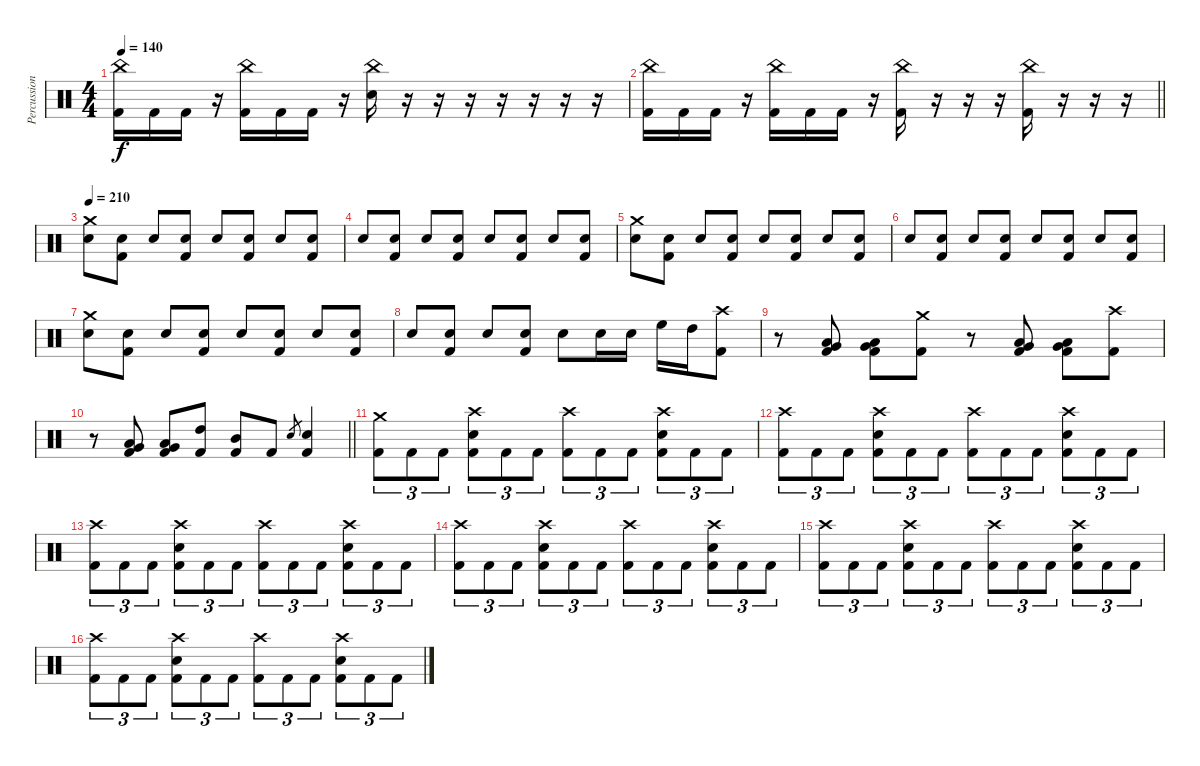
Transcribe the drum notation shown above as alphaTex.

\track ("Percussion" "Percussion") {instrument percussion}
\staff {score}
\articulation defaults
\ts (4 4)
\tempo 140
\clef neutral
\ks c
("China (hit)" "Kick (hit) 2").16{dy f} "Kick (hit) 2".16 "Kick (hit) 2".16 r.16 ("China (hit)" "Kick (hit) 2").16 "Kick (hit) 2".16 "Kick (hit) 2".16 r.16 ("China (hit)" "Snare (hit) 2").16 r.16 r.16 r.16 r.16 r.16 r.16 r.16 |
\barLineRight lightlight
("China (hit)" "Kick (hit) 2").16 "Kick (hit) 2".16 "Kick (hit) 2".16 r.16 ("China (hit)" "Kick (hit) 2").16 "Kick (hit) 2".16 "Kick (hit) 2".16 r.16 ("China (hit)" "Kick (hit) 2").16 r.16 r.16 r.16 ("China (hit)" "Kick (hit) 2").16 r.16 r.16 r.16 |
\section ("" "")
\tempo 210
("Crash medium (hit)" "Snare (hit) 2").8 ("Snare (hit) 2" "Kick (hit) 2").8 "Snare (hit) 2".8 ("Snare (hit) 2" "Kick (hit) 2").8 "Snare (hit) 2".8 ("Snare (hit) 2" "Kick (hit) 2").8 "Snare (hit) 2".8 ("Snare (hit) 2" "Kick (hit) 2").8 |
"Snare (hit) 2".8 ("Snare (hit) 2" "Kick (hit) 2").8 "Snare (hit) 2".8 ("Snare (hit) 2" "Kick (hit) 2").8 "Snare (hit) 2".8 ("Snare (hit) 2" "Kick (hit) 2").8 "Snare (hit) 2".8 ("Snare (hit) 2" "Kick (hit) 2").8 |
("Crash medium (hit)" "Snare (hit) 2").8 ("Snare (hit) 2" "Kick (hit) 2").8 "Snare (hit) 2".8 ("Snare (hit) 2" "Kick (hit) 2").8 "Snare (hit) 2".8 ("Snare (hit) 2" "Kick (hit) 2").8 "Snare (hit) 2".8 ("Snare (hit) 2" "Kick (hit) 2").8 |
"Snare (hit) 2".8 ("Snare (hit) 2" "Kick (hit) 2").8 "Snare (hit) 2".8 ("Snare (hit) 2" "Kick (hit) 2").8 "Snare (hit) 2".8 ("Snare (hit) 2" "Kick (hit) 2").8 "Snare (hit) 2".8 ("Snare (hit) 2" "Kick (hit) 2").8 |
("Crash medium (hit)" "Snare (hit) 2").8 ("Snare (hit) 2" "Kick (hit) 2").8 "Snare (hit) 2".8 ("Snare (hit) 2" "Kick (hit) 2").8 "Snare (hit) 2".8 ("Snare (hit) 2" "Kick (hit) 2").8 "Snare (hit) 2".8 ("Snare (hit) 2" "Kick (hit) 2").8 |
"Snare (hit) 2".8 ("Snare (hit) 2" "Kick (hit) 2").8 "Snare (hit) 2".8 ("Snare (hit) 2" "Kick (hit) 2").8 "Snare (hit) 2".8 "Snare (hit) 2".16 "Snare (hit) 2".16 "High Floor Tom (hit)".16 "High Tom (hit)".16 ("Crash high (hit)" "Kick (hit) 2").8 |
r.8 ("Low Tom (hit)" "Very Low Tom (hit)" "Kick (hit) 2").8 ("Low Tom (hit)" "Very Low Tom (hit)" "Kick (hit) 2").8 ("Crash medium (hit)" "Kick (hit) 2").8 r.8 ("Low Tom (hit)" "Very Low Tom (hit)" "Kick (hit) 2").8 ("Low Tom (hit)" "Very Low Tom (hit)" "Kick (hit) 2").8 ("Crash high (hit)" "Kick (hit) 2").8 |
\barLineRight lightlight
r.8 ("Low Tom (hit)" "Very Low Tom (hit)" "Kick (hit) 2").8 ("Low Tom (hit)" "Very Low Tom (hit)" "Kick (hit) 2").8 ("High Tom (hit)" "Kick (hit) 2").8 ("Mid Tom (hit)" "Kick (hit) 2").8 "Kick (hit) 2".8 "Snare (hit) 2".8{gr} ("Snare (hit) 2" "Kick (hit) 2").4 |
\section ("" "")
("Crash medium (hit)" "Kick (hit) 2").8{tu (3 2)} "Kick (hit) 2".8{tu (3 2)} "Kick (hit) 2".8{tu (3 2)} ("Crash high (hit)" "Snare (hit) 2" "Kick (hit) 2").8{tu (3 2)} "Kick (hit) 2".8{tu (3 2)} "Kick (hit) 2".8{tu (3 2)} ("Crash high (hit)" "Kick (hit) 2").8{tu (3 2)} "Kick (hit) 2".8{tu (3 2)} "Kick (hit) 2".8{tu (3 2)} ("Crash high (hit)" "Snare (hit) 2" "Kick (hit) 2").8{tu (3 2)} "Kick (hit) 2".8{tu (3 2)} "Kick (hit) 2".8{tu (3 2)} |
("Crash high (hit)" "Kick (hit) 2").8{tu (3 2)} "Kick (hit) 2".8{tu (3 2)} "Kick (hit) 2".8{tu (3 2)} ("Crash high (hit)" "Snare (hit) 2" "Kick (hit) 2").8{tu (3 2)} "Kick (hit) 2".8{tu (3 2)} "Kick (hit) 2".8{tu (3 2)} ("Crash high (hit)" "Kick (hit) 2").8{tu (3 2)} "Kick (hit) 2".8{tu (3 2)} "Kick (hit) 2".8{tu (3 2)} ("Crash high (hit)" "Snare (hit) 2" "Kick (hit) 2").8{tu (3 2)} "Kick (hit) 2".8{tu (3 2)} "Kick (hit) 2".8{tu (3 2)} |
("Crash high (hit)" "Kick (hit) 2").8{tu (3 2)} "Kick (hit) 2".8{tu (3 2)} "Kick (hit) 2".8{tu (3 2)} ("Crash high (hit)" "Snare (hit) 2" "Kick (hit) 2").8{tu (3 2)} "Kick (hit) 2".8{tu (3 2)} "Kick (hit) 2".8{tu (3 2)} ("Crash high (hit)" "Kick (hit) 2").8{tu (3 2)} "Kick (hit) 2".8{tu (3 2)} "Kick (hit) 2".8{tu (3 2)} ("Crash high (hit)" "Snare (hit) 2" "Kick (hit) 2").8{tu (3 2)} "Kick (hit) 2".8{tu (3 2)} "Kick (hit) 2".8{tu (3 2)} |
("Crash high (hit)" "Kick (hit) 2").8{tu (3 2)} "Kick (hit) 2".8{tu (3 2)} "Kick (hit) 2".8{tu (3 2)} ("Crash high (hit)" "Snare (hit) 2" "Kick (hit) 2").8{tu (3 2)} "Kick (hit) 2".8{tu (3 2)} "Kick (hit) 2".8{tu (3 2)} ("Crash high (hit)" "Kick (hit) 2").8{tu (3 2)} "Kick (hit) 2".8{tu (3 2)} "Kick (hit) 2".8{tu (3 2)} ("Crash high (hit)" "Snare (hit) 2" "Kick (hit) 2").8{tu (3 2)} "Kick (hit) 2".8{tu (3 2)} "Kick (hit) 2".8{tu (3 2)} |
("Crash high (hit)" "Kick (hit) 2").8{tu (3 2)} "Kick (hit) 2".8{tu (3 2)} "Kick (hit) 2".8{tu (3 2)} ("Crash high (hit)" "Snare (hit) 2" "Kick (hit) 2").8{tu (3 2)} "Kick (hit) 2".8{tu (3 2)} "Kick (hit) 2".8{tu (3 2)} ("Crash high (hit)" "Kick (hit) 2").8{tu (3 2)} "Kick (hit) 2".8{tu (3 2)} "Kick (hit) 2".8{tu (3 2)} ("Crash high (hit)" "Snare (hit) 2" "Kick (hit) 2").8{tu (3 2)} "Kick (hit) 2".8{tu (3 2)} "Kick (hit) 2".8{tu (3 2)} |
("Crash high (hit)" "Kick (hit) 2").8{tu (3 2)} "Kick (hit) 2".8{tu (3 2)} "Kick (hit) 2".8{tu (3 2)} ("Crash high (hit)" "Snare (hit) 2" "Kick (hit) 2").8{tu (3 2)} "Kick (hit) 2".8{tu (3 2)} "Kick (hit) 2".8{tu (3 2)} ("Crash high (hit)" "Kick (hit) 2").8{tu (3 2)} "Kick (hit) 2".8{tu (3 2)} "Kick (hit) 2".8{tu (3 2)} ("Crash high (hit)" "Snare (hit) 2" "Kick (hit) 2").8{tu (3 2)} "Kick (hit) 2".8{tu (3 2)} "Kick (hit) 2".8{tu (3 2)}
